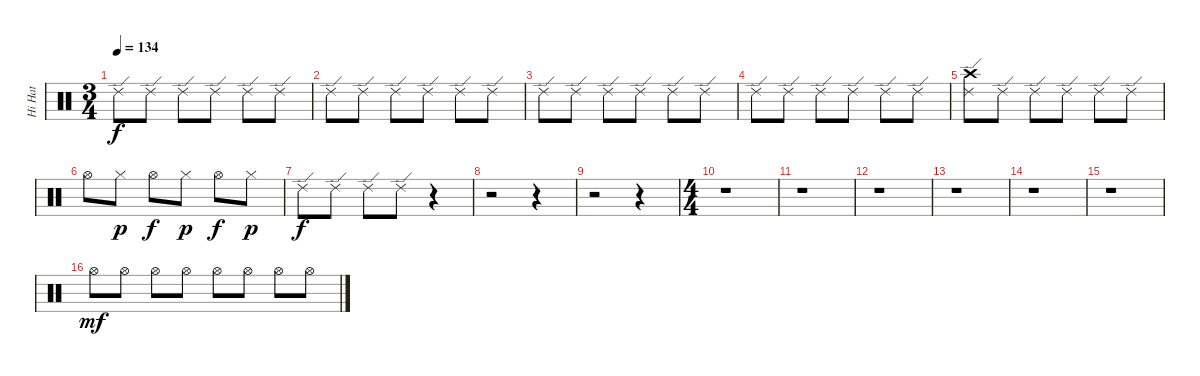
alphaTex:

\track ("Hi Hat" "Hi Hat") {instrument percussion}
\staff {score}
\articulation defaults
\ts (3 4)
\tempo 134
\clef neutral
\ks c "Ride (edge) 2".8{dy f} "Ride (edge) 2".8 "Ride (edge) 2".8 "Ride (edge) 2".8 "Ride (edge) 2".8 "Ride (edge) 2".8
|
"Ride (edge) 2".8 "Ride (edge) 2".8 "Ride (edge) 2".8 "Ride (edge) 2".8 "Ride (edge) 2".8 "Ride (edge) 2".8 |
"Ride (edge) 2".8 "Ride (edge) 2".8 "Ride (edge) 2".8 "Ride (edge) 2".8 "Ride (edge) 2".8 "Ride (edge) 2".8 |
"Ride (edge) 2".8 "Ride (edge) 2".8 "Ride (edge) 2".8 "Ride (edge) 2".8 "Ride (edge) 2".8 "Ride (edge) 2".8 |
("Ride (edge) 2" "Crash high (hit)").8 "Ride (edge) 2".8 "Ride (edge) 2".8 "Ride (edge) 2".8 "Ride (edge) 2".8 "Ride (edge) 2".8 |
"Hi-Hat (open)".8 "Hi-Hat (closed)".8{dy p} "Hi-Hat (open)".8{dy f} "Hi-Hat (closed)".8{dy p} "Hi-Hat (open)".8{dy f} "Hi-Hat (closed)".8{dy p} |
"Ride (edge) 2".8{dy f} "Ride (edge) 2".8 "Ride (edge) 2".8 "Ride (edge) 2".8 r.4 |
r.2 r.4 |
r.2 r.4 |
\ts (4 4)
r.1 |
r.1 |
r.1 |
r.1 |
r.1 |
r.1 |
"Hi-Hat (open)".8{dy mf} "Hi-Hat (open)".8 "Hi-Hat (open)".8 "Hi-Hat (open)".8 "Hi-Hat (open)".8 "Hi-Hat (open)".8 "Hi-Hat (open)".8 "Hi-Hat (open)".8
